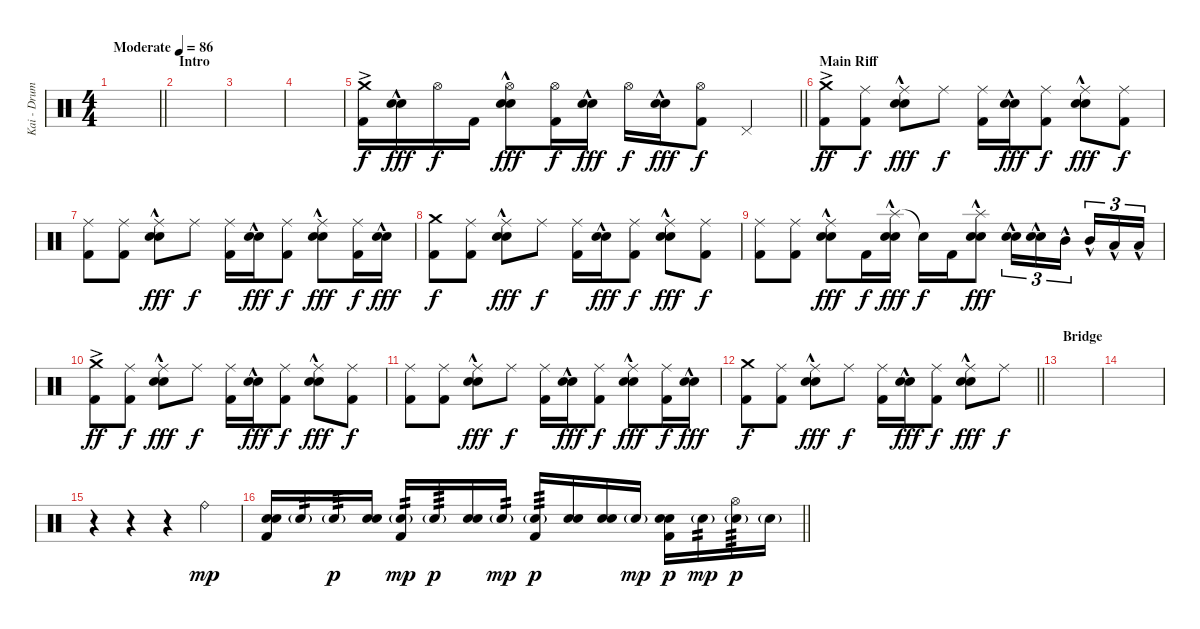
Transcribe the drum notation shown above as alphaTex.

\track ("Kai - Drums" "Kai - Drum") {instrument percussion}
\staff {score}
\articulation defaults
\ts (4 4)
\tempo (86 "Moderate")
\clef neutral
\barLineRight lightlight
\ks c
|
\section ("" "Intro")
|
|
|
\barLineRight lightlight
("Crash medium (hit)"{ac} "Kick (hit) 2").16 ("Electric Snare (hit)"{hac} "Snare (hit) 2"{hac}).16{dy fff} "Hi-Hat (open)".16{dy f} "Kick (hit) 2".16 ("Hi-Hat (open)" "Electric Snare (hit)"{hac} "Snare (hit) 2"{hac}).8{dy fff} ("Hi-Hat (open)" "Kick (hit) 2").16{dy f} ("Electric Snare (hit)"{hac} "Snare (hit) 2"{hac}).16{dy fff} "Hi-Hat (open)".16{dy f} ("Electric Snare (hit)"{hac} "Snare (hit) 2"{hac}).16{dy fff} ("Hi-Hat (open)" "Kick (hit) 2").8{dy f} "Pedal Hi-Hat (hit)".4 |
\section ("" "Main Riff")
("Crash medium (hit)"{ac} "Kick (hit) 2").8{dy ff} ("Ride (middle)" "Kick (hit) 2").8{dy f} ("Ride (middle)" "Electric Snare (hit)"{hac} "Snare (hit) 2"{hac}).8{dy fff} "Ride (middle)".8{dy f} ("Ride (middle)" "Kick (hit) 2").16 ("Electric Snare (hit)"{hac} "Snare (hit) 2"{hac}).16{dy fff} ("Ride (middle)" "Kick (hit) 2").8{dy f} ("Ride (middle)" "Electric Snare (hit)"{hac} "Snare (hit) 2"{hac}).8{dy fff} ("Ride (middle)" "Kick (hit) 2").8{dy f} |
("Ride (middle)" "Kick (hit) 2").8 ("Ride (middle)" "Kick (hit) 2").8 ("Ride (middle)" "Electric Snare (hit)"{hac} "Snare (hit) 2"{hac}).8{dy fff} "Ride (middle)".8{dy f} ("Ride (middle)" "Kick (hit) 2").16 ("Electric Snare (hit)"{hac} "Snare (hit) 2"{hac}).16{dy fff} ("Ride (middle)" "Kick (hit) 2").8{dy f} ("Ride (middle)" "Electric Snare (hit)"{hac} "Snare (hit) 2"{hac}).8{dy fff} ("Ride (middle)" "Kick (hit) 2").16{dy f} ("Electric Snare (hit)"{hac} "Snare (hit) 2"{hac}).16{dy fff} |
("Crash medium (hit)" "Kick (hit) 2").8{dy f} ("Ride (middle)" "Kick (hit) 2").8 ("Ride (middle)" "Electric Snare (hit)"{hac} "Snare (hit) 2"{hac}).8{dy fff} "Ride (middle)".8{dy f} ("Ride (middle)" "Kick (hit) 2").16 ("Electric Snare (hit)"{hac} "Snare (hit) 2"{hac}).16{dy fff} ("Ride (middle)" "Kick (hit) 2").8{dy f} ("Ride (middle)" "Electric Snare (hit)"{hac} "Snare (hit) 2"{hac}).8{dy fff} ("Ride (middle)" "Kick (hit) 2").8{dy f} |
("Ride (middle)" "Kick (hit) 2").8 ("Ride (middle)" "Kick (hit) 2").8 ("Ride (middle)" "Electric Snare (hit)"{hac} "Snare (hit) 2"{hac}).8{dy fff} "Kick (hit) 2".16{dy f} ("Splash (hit)"{hac} "Electric Snare (hit)"{hac} "Snare (hit) 2"{hac}).16{dy fff} "Snare (hit)"{t}.16{dy f} "Kick (hit) 2".16 ("Splash (hit)"{hac} "Electric Snare (hit)"{hac} "Snare (hit) 2"{hac}).8{dy fff} ("Electric Snare (hit)"{hac} "Snare (hit) 2").16{tu (3 2)} ("Electric Snare (hit)"{hac} "Snare (hit) 2").16{tu (3 2)} "Mid Tom (hit)"{hac}.16{tu (3 2) beam splitsecondary} "Mid Tom (hit)"{hac}.16{tu (3 2)} "Low Tom (hit)"{hac}.16{tu (3 2)} "Low Tom (hit)"{hac}.16{tu (3 2)} |
("Crash medium (hit)"{ac} "Kick (hit) 2").8{dy ff} ("Ride (middle)" "Kick (hit) 2").8{dy f} ("Ride (middle)" "Electric Snare (hit)"{hac} "Snare (hit) 2"{hac}).8{dy fff} "Ride (middle)".8{dy f} ("Ride (middle)" "Kick (hit) 2").16 ("Electric Snare (hit)"{hac} "Snare (hit) 2"{hac}).16{dy fff} ("Ride (middle)" "Kick (hit) 2").8{dy f} ("Ride (middle)" "Electric Snare (hit)"{hac} "Snare (hit) 2"{hac}).8{dy fff} ("Ride (middle)" "Kick (hit) 2").8{dy f} |
("Ride (middle)" "Kick (hit) 2").8 ("Ride (middle)" "Kick (hit) 2").8 ("Ride (middle)" "Electric Snare (hit)"{hac} "Snare (hit) 2"{hac}).8{dy fff} "Ride (middle)".8{dy f} ("Ride (middle)" "Kick (hit) 2").16 ("Electric Snare (hit)"{hac} "Snare (hit) 2"{hac}).16{dy fff} ("Ride (middle)" "Kick (hit) 2").8{dy f} ("Ride (middle)" "Electric Snare (hit)"{hac} "Snare (hit) 2"{hac}).8{dy fff} ("Ride (middle)" "Kick (hit) 2").16{dy f} ("Electric Snare (hit)"{hac} "Snare (hit) 2"{hac}).16{dy fff} |
\barLineRight lightlight
("Crash medium (hit)" "Kick (hit) 2").8{dy f} ("Ride (middle)" "Kick (hit) 2").8 ("Ride (middle)" "Electric Snare (hit)"{hac} "Snare (hit) 2"{hac}).8{dy fff} "Ride (middle)".8{dy f} ("Ride (middle)" "Kick (hit) 2").16 ("Electric Snare (hit)"{hac} "Snare (hit) 2"{hac}).16{dy fff} ("Ride (middle)" "Kick (hit) 2").8{dy f} ("Ride (middle)" "Electric Snare (hit)"{hac} "Snare (hit) 2"{hac}).8{dy fff} "Ride (middle)".8{dy f} |
\section ("" "Bridge")
|
|
r.4 r.4 r.4 "Ride (bell)".4{dy mp} |
\barLineRight lightlight
("Electric Snare (hit)" "Snare (hit) 2" "Kick (hit) 2").16 "Snare (hit) 2"{g}.16{tp 2} "Snare (hit) 2"{g}.16{tp 3 dy p} ("Electric Snare (hit)" "Snare (hit) 2").16 ("Snare (hit) 2"{g} "Kick (hit) 2").16{tp 2 dy mp} "Snare (hit) 2"{g}.16{tp 3 dy p} ("Electric Snare (hit)" "Snare (hit) 2").16 "Snare (hit) 2"{g}.16{tp 2 dy mp} ("Snare (hit) 2"{g} "Kick (hit) 2").16{tp 3 dy p} ("Electric Snare (hit)" "Snare (hit) 2").16 ("Electric Snare (hit)" "Snare (hit) 2").16 "Snare (hit) 2"{g}.16{dy mp} ("Electric Snare (hit)" "Snare (hit) 2" "Kick (hit) 2").16{dy p} "Snare (hit) 2"{g}.16{tp 2 dy mp} ("Hi-Hat (open)" "Snare (hit) 2"{g}).16{tp 3 dy p} "Snare (hit) 2"{g}.16
